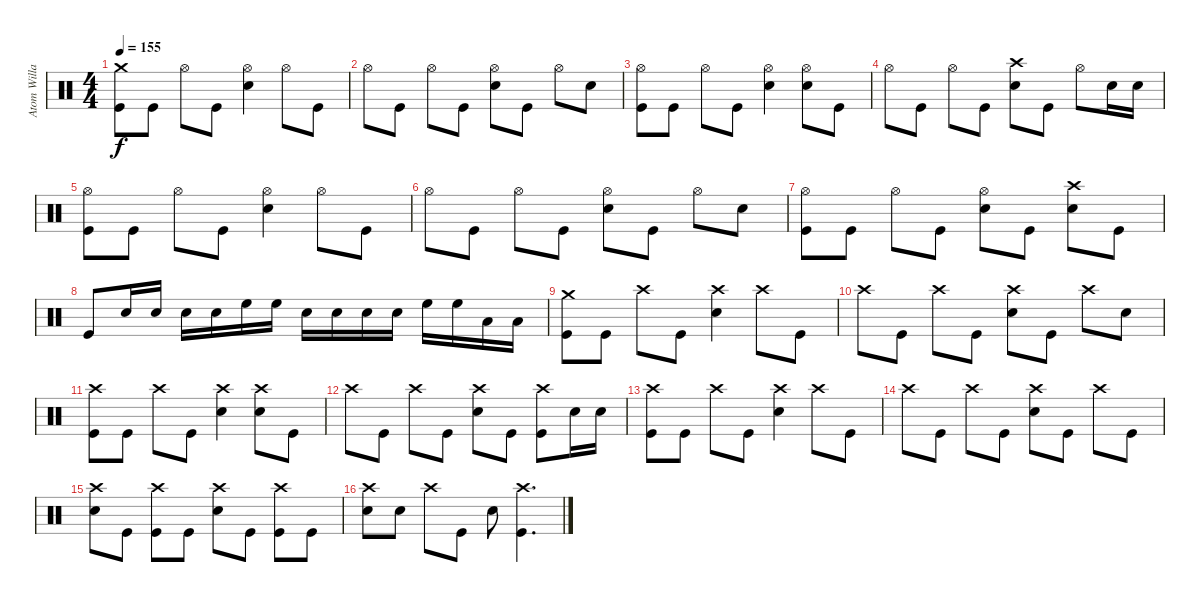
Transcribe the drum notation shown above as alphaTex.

\track ("Atom Willard Drums" "Atom Willa") {instrument percussion}
\staff {score}
\articulation defaults
\ts (4 4)
\tempo 155
\clef neutral
\ks c
("Crash medium (hit)" "Kick (hit)").8{dy f} "Kick (hit)".8 "Hi-Hat (open)".8 "Kick (hit)".8 ("Electric Snare (hit)" "Hi-Hat (open)").4 "Hi-Hat (open)".8 "Kick (hit)".8 |
"Hi-Hat (open)".8 "Kick (hit)".8 "Hi-Hat (open)".8 "Kick (hit)".8 ("Electric Snare (hit)" "Hi-Hat (open)").8 "Kick (hit)".8 "Hi-Hat (open)".8 "Electric Snare (hit)".8 |
("Kick (hit)" "Hi-Hat (open)").8 "Kick (hit)".8 "Hi-Hat (open)".8 "Kick (hit)".8 ("Electric Snare (hit)" "Hi-Hat (open)").4 ("Hi-Hat (open)" "Electric Snare (hit)").8 "Kick (hit)".8 |
"Hi-Hat (open)".8 "Kick (hit)".8 "Hi-Hat (open)".8 "Kick (hit)".8 ("Electric Snare (hit)" "Crash high (hit)").8 "Kick (hit)".8 "Hi-Hat (open)".8 "Electric Snare (hit)".16 "Electric Snare (hit)".16 |
("Kick (hit)" "Hi-Hat (open)").8 "Kick (hit)".8 "Hi-Hat (open)".8 "Kick (hit)".8 ("Electric Snare (hit)" "Hi-Hat (open)").4 "Hi-Hat (open)".8 "Kick (hit)".8 |
"Hi-Hat (open)".8 "Kick (hit)".8 "Hi-Hat (open)".8 "Kick (hit)".8 ("Electric Snare (hit)" "Hi-Hat (open)").8 "Kick (hit)".8 "Hi-Hat (open)".8 "Electric Snare (hit)".8 |
("Kick (hit)" "Hi-Hat (open)").8 "Kick (hit)".8 "Hi-Hat (open)".8 "Kick (hit)".8 ("Electric Snare (hit)" "Hi-Hat (open)").8 "Kick (hit)".8 ("Crash high (hit)" "Electric Snare (hit)").8 "Kick (hit)".8 |
"Kick (hit)".8 "Electric Snare (hit)".16 "Electric Snare (hit)".16 "Electric Snare (hit)".16 "Electric Snare (hit)".16 "High Floor Tom (hit)".16 "High Floor Tom (hit)".16 "Electric Snare (hit)".16 "Electric Snare (hit)".16 "Electric Snare (hit)".16 "Electric Snare (hit)".16 "High Floor Tom (hit)".16 "High Floor Tom (hit)".16 "Low Tom (hit)".16 "Low Tom (hit)".16 |
("Crash medium (hit)" "Kick (hit)").8 "Kick (hit)".8 "Crash high (hit)".8 "Kick (hit)".8 ("Electric Snare (hit)" "Crash high (hit)").4 "Crash high (hit)".8 "Kick (hit)".8 |
"Crash high (hit)".8 "Kick (hit)".8 "Crash high (hit)".8 "Kick (hit)".8 ("Crash high (hit)" "Electric Snare (hit)").8 "Kick (hit)".8 "Crash high (hit)".8 "Electric Snare (hit)".8 |
("Kick (hit)" "Crash high (hit)").8 "Kick (hit)".8 "Crash high (hit)".8 "Kick (hit)".8 ("Electric Snare (hit)" "Crash high (hit)").4 ("Crash high (hit)" "Electric Snare (hit)").8 "Kick (hit)".8 |
"Crash high (hit)".8 "Kick (hit)".8 "Crash high (hit)".8 "Kick (hit)".8 ("Electric Snare (hit)" "Crash high (hit)").8 "Kick (hit)".8 ("Kick (hit)" "Crash high (hit)").8 "Electric Snare (hit)".16 "Electric Snare (hit)".16 |
("Crash high (hit)" "Kick (hit)").8 "Kick (hit)".8 "Crash high (hit)".8 "Kick (hit)".8 ("Electric Snare (hit)" "Crash high (hit)").4 "Crash high (hit)".8 "Kick (hit)".8 |
"Crash high (hit)".8 "Kick (hit)".8 "Crash high (hit)".8 "Kick (hit)".8 ("Crash high (hit)" "Electric Snare (hit)").8 "Kick (hit)".8 "Crash high (hit)".8 "Kick (hit)".8 |
("Electric Snare (hit)" "Crash high (hit)").8 "Kick (hit)".8 ("Kick (hit)" "Crash high (hit)").8 "Kick (hit)".8 ("Crash high (hit)" "Electric Snare (hit)").8 "Kick (hit)".8 ("Kick (hit)" "Crash high (hit)").8 "Kick (hit)".8 |
("Electric Snare (hit)" "Crash high (hit)").8 "Electric Snare (hit)".8 "Crash high (hit)".8 "Kick (hit)".8 "Electric Snare (hit)".8 ("Crash high (hit)" "Kick (hit)").4{d}
